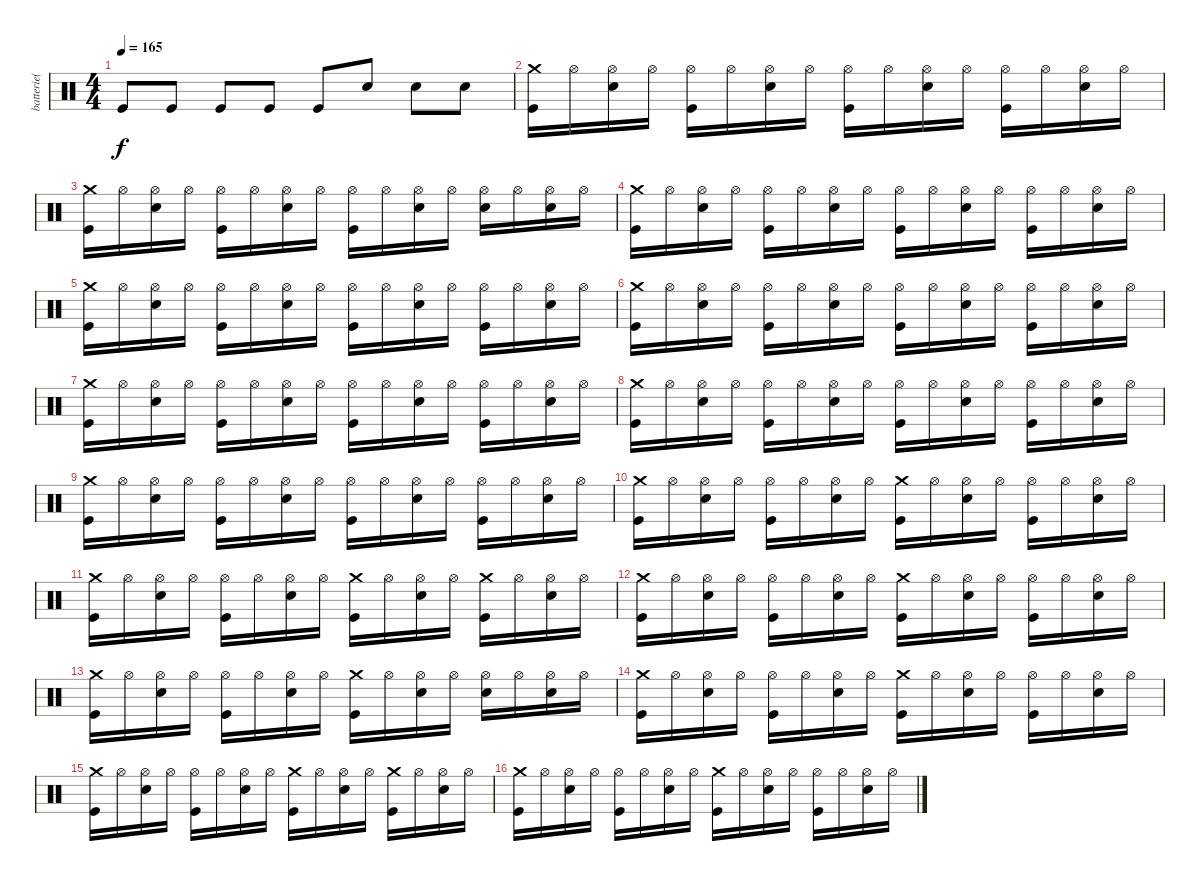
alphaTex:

\track ("batterie( Shawn )" "batterie( ") {instrument percussion}
\staff {score}
\articulation defaults
\ts (4 4)
\tempo 165
\clef neutral
\ks c "Kick (hit)".8{dy f} "Kick (hit)".8 "Kick (hit)".8 "Kick (hit)".8 "Kick (hit)".8 "Snare (hit) 2".8 "Snare (hit) 2".8 "Snare (hit) 2".8
|
("Crash medium (hit)" "Kick (hit)").16 "Hi-Hat (open)".16 ("Hi-Hat (open)" "Snare (hit) 2").16 "Hi-Hat (open)".16 ("Hi-Hat (open)" "Kick (hit)").16 "Hi-Hat (open)".16 ("Hi-Hat (open)" "Snare (hit) 2").16 "Hi-Hat (open)".16 ("Hi-Hat (open)" "Kick (hit)").16 "Hi-Hat (open)".16 ("Hi-Hat (open)" "Snare (hit) 2").16 "Hi-Hat (open)".16 ("Hi-Hat (open)" "Kick (hit)").16 "Hi-Hat (open)".16 ("Hi-Hat (open)" "Snare (hit) 2").16 "Hi-Hat (open)".16 |
("Crash medium (hit)" "Kick (hit)").16 "Hi-Hat (open)".16 ("Hi-Hat (open)" "Snare (hit) 2").16 "Hi-Hat (open)".16 ("Hi-Hat (open)" "Kick (hit)").16 "Hi-Hat (open)".16 ("Hi-Hat (open)" "Snare (hit) 2").16 "Hi-Hat (open)".16 ("Hi-Hat (open)" "Kick (hit)").16 "Hi-Hat (open)".16 ("Hi-Hat (open)" "Snare (hit) 2").16 "Hi-Hat (open)".16 ("Hi-Hat (open)" "Snare (hit) 2").16 "Hi-Hat (open)".16 ("Hi-Hat (open)" "Snare (hit) 2").16 "Hi-Hat (open)".16 |
("Crash medium (hit)" "Kick (hit)").16 "Hi-Hat (open)".16 ("Hi-Hat (open)" "Snare (hit) 2").16 "Hi-Hat (open)".16 ("Hi-Hat (open)" "Kick (hit)").16 "Hi-Hat (open)".16 ("Hi-Hat (open)" "Snare (hit) 2").16 "Hi-Hat (open)".16 ("Hi-Hat (open)" "Kick (hit)").16 "Hi-Hat (open)".16 ("Hi-Hat (open)" "Snare (hit) 2").16 "Hi-Hat (open)".16 ("Hi-Hat (open)" "Kick (hit)").16 "Hi-Hat (open)".16 ("Hi-Hat (open)" "Snare (hit) 2").16 "Hi-Hat (open)".16 |
("Crash medium (hit)" "Kick (hit)").16 "Hi-Hat (open)".16 ("Hi-Hat (open)" "Snare (hit) 2").16 "Hi-Hat (open)".16 ("Hi-Hat (open)" "Kick (hit)").16 "Hi-Hat (open)".16 ("Hi-Hat (open)" "Snare (hit) 2").16 "Hi-Hat (open)".16 ("Hi-Hat (open)" "Kick (hit)").16 "Hi-Hat (open)".16 ("Hi-Hat (open)" "Snare (hit) 2").16 "Hi-Hat (open)".16 ("Hi-Hat (open)" "Kick (hit)").16 "Hi-Hat (open)".16 ("Hi-Hat (open)" "Snare (hit) 2").16 "Hi-Hat (open)".16 |
("Crash medium (hit)" "Kick (hit)").16 "Hi-Hat (open)".16 ("Hi-Hat (open)" "Snare (hit) 2").16 "Hi-Hat (open)".16 ("Hi-Hat (open)" "Kick (hit)").16 "Hi-Hat (open)".16 ("Hi-Hat (open)" "Snare (hit) 2").16 "Hi-Hat (open)".16 ("Hi-Hat (open)" "Kick (hit)").16 "Hi-Hat (open)".16 ("Hi-Hat (open)" "Snare (hit) 2").16 "Hi-Hat (open)".16 ("Hi-Hat (open)" "Kick (hit)").16 "Hi-Hat (open)".16 ("Hi-Hat (open)" "Snare (hit) 2").16 "Hi-Hat (open)".16 |
("Crash medium (hit)" "Kick (hit)").16 "Hi-Hat (open)".16 ("Hi-Hat (open)" "Snare (hit) 2").16 "Hi-Hat (open)".16 ("Hi-Hat (open)" "Kick (hit)").16 "Hi-Hat (open)".16 ("Hi-Hat (open)" "Snare (hit) 2").16 "Hi-Hat (open)".16 ("Hi-Hat (open)" "Kick (hit)").16 "Hi-Hat (open)".16 ("Hi-Hat (open)" "Snare (hit) 2").16 "Hi-Hat (open)".16 ("Hi-Hat (open)" "Kick (hit)").16 "Hi-Hat (open)".16 ("Hi-Hat (open)" "Snare (hit) 2").16 "Hi-Hat (open)".16 |
("Crash medium (hit)" "Kick (hit)").16 "Hi-Hat (open)".16 ("Hi-Hat (open)" "Snare (hit) 2").16 "Hi-Hat (open)".16 ("Hi-Hat (open)" "Kick (hit)").16 "Hi-Hat (open)".16 ("Hi-Hat (open)" "Snare (hit) 2").16 "Hi-Hat (open)".16 ("Hi-Hat (open)" "Kick (hit)").16 "Hi-Hat (open)".16 ("Hi-Hat (open)" "Snare (hit) 2").16 "Hi-Hat (open)".16 ("Hi-Hat (open)" "Kick (hit)").16 "Hi-Hat (open)".16 ("Hi-Hat (open)" "Snare (hit) 2").16 "Hi-Hat (open)".16 |
("Crash medium (hit)" "Kick (hit)").16 "Hi-Hat (open)".16 ("Hi-Hat (open)" "Snare (hit) 2").16 "Hi-Hat (open)".16 ("Hi-Hat (open)" "Kick (hit)").16 "Hi-Hat (open)".16 ("Hi-Hat (open)" "Snare (hit) 2").16 "Hi-Hat (open)".16 ("Hi-Hat (open)" "Kick (hit)").16 "Hi-Hat (open)".16 ("Hi-Hat (open)" "Snare (hit) 2").16 "Hi-Hat (open)".16 ("Hi-Hat (open)" "Kick (hit)").16 "Hi-Hat (open)".16 ("Hi-Hat (open)" "Snare (hit) 2").16 "Hi-Hat (open)".16 |
("Crash medium (hit)" "Kick (hit)").16 "Hi-Hat (open)".16 ("Hi-Hat (open)" "Snare (hit) 2").16 "Hi-Hat (open)".16 ("Hi-Hat (open)" "Kick (hit)").16 "Hi-Hat (open)".16 ("Hi-Hat (open)" "Snare (hit) 2").16 "Hi-Hat (open)".16 ("Crash medium (hit)" "Kick (hit)").16 "Hi-Hat (open)".16 ("Hi-Hat (open)" "Snare (hit) 2").16 "Hi-Hat (open)".16 ("Hi-Hat (open)" "Kick (hit)").16 "Hi-Hat (open)".16 ("Hi-Hat (open)" "Snare (hit) 2").16 "Hi-Hat (open)".16 |
("Crash medium (hit)" "Kick (hit)").16 "Hi-Hat (open)".16 ("Hi-Hat (open)" "Snare (hit) 2").16 "Hi-Hat (open)".16 ("Hi-Hat (open)" "Kick (hit)").16 "Hi-Hat (open)".16 ("Hi-Hat (open)" "Snare (hit) 2").16 "Hi-Hat (open)".16 ("Crash medium (hit)" "Kick (hit)").16 "Hi-Hat (open)".16 ("Hi-Hat (open)" "Snare (hit) 2").16 "Hi-Hat (open)".16 ("Crash medium (hit)" "Kick (hit)").16 "Hi-Hat (open)".16 ("Hi-Hat (open)" "Snare (hit) 2").16 "Hi-Hat (open)".16 |
("Crash medium (hit)" "Kick (hit)").16 "Hi-Hat (open)".16 ("Hi-Hat (open)" "Snare (hit) 2").16 "Hi-Hat (open)".16 ("Hi-Hat (open)" "Kick (hit)").16 "Hi-Hat (open)".16 ("Hi-Hat (open)" "Snare (hit) 2").16 "Hi-Hat (open)".16 ("Crash medium (hit)" "Kick (hit)").16 "Hi-Hat (open)".16 ("Hi-Hat (open)" "Snare (hit) 2").16 "Hi-Hat (open)".16 ("Hi-Hat (open)" "Kick (hit)").16 "Hi-Hat (open)".16 ("Hi-Hat (open)" "Snare (hit) 2").16 "Hi-Hat (open)".16 |
("Crash medium (hit)" "Kick (hit)").16 "Hi-Hat (open)".16 ("Hi-Hat (open)" "Snare (hit) 2").16 "Hi-Hat (open)".16 ("Hi-Hat (open)" "Kick (hit)").16 "Hi-Hat (open)".16 ("Hi-Hat (open)" "Snare (hit) 2").16 "Hi-Hat (open)".16 ("Crash medium (hit)" "Kick (hit)").16 "Hi-Hat (open)".16 ("Hi-Hat (open)" "Snare (hit) 2").16 "Hi-Hat (open)".16 ("Hi-Hat (open)" "Snare (hit) 2").16 "Hi-Hat (open)".16 ("Hi-Hat (open)" "Snare (hit) 2").16 "Hi-Hat (open)".16 |
("Crash medium (hit)" "Kick (hit)").16 "Hi-Hat (open)".16 ("Hi-Hat (open)" "Snare (hit) 2").16 "Hi-Hat (open)".16 ("Hi-Hat (open)" "Kick (hit)").16 "Hi-Hat (open)".16 ("Hi-Hat (open)" "Snare (hit) 2").16 "Hi-Hat (open)".16 ("Crash medium (hit)" "Kick (hit)").16 "Hi-Hat (open)".16 ("Hi-Hat (open)" "Snare (hit) 2").16 "Hi-Hat (open)".16 ("Hi-Hat (open)" "Kick (hit)").16 "Hi-Hat (open)".16 ("Hi-Hat (open)" "Snare (hit) 2").16 "Hi-Hat (open)".16 |
("Crash medium (hit)" "Kick (hit)").16 "Hi-Hat (open)".16 ("Hi-Hat (open)" "Snare (hit) 2").16 "Hi-Hat (open)".16 ("Hi-Hat (open)" "Kick (hit)").16 "Hi-Hat (open)".16 ("Hi-Hat (open)" "Snare (hit) 2").16 "Hi-Hat (open)".16 ("Crash medium (hit)" "Kick (hit)").16 "Hi-Hat (open)".16 ("Hi-Hat (open)" "Snare (hit) 2").16 "Hi-Hat (open)".16 ("Crash medium (hit)" "Kick (hit)").16 "Hi-Hat (open)".16 ("Hi-Hat (open)" "Snare (hit) 2").16 "Hi-Hat (open)".16 |
("Crash medium (hit)" "Kick (hit)").16 "Hi-Hat (open)".16 ("Hi-Hat (open)" "Snare (hit) 2").16 "Hi-Hat (open)".16 ("Hi-Hat (open)" "Kick (hit)").16 "Hi-Hat (open)".16 ("Hi-Hat (open)" "Snare (hit) 2").16 "Hi-Hat (open)".16 ("Crash medium (hit)" "Kick (hit)").16 "Hi-Hat (open)".16 ("Hi-Hat (open)" "Snare (hit) 2").16 "Hi-Hat (open)".16 ("Hi-Hat (open)" "Kick (hit)").16 "Hi-Hat (open)".16 ("Hi-Hat (open)" "Snare (hit) 2").16 "Hi-Hat (open)".16
